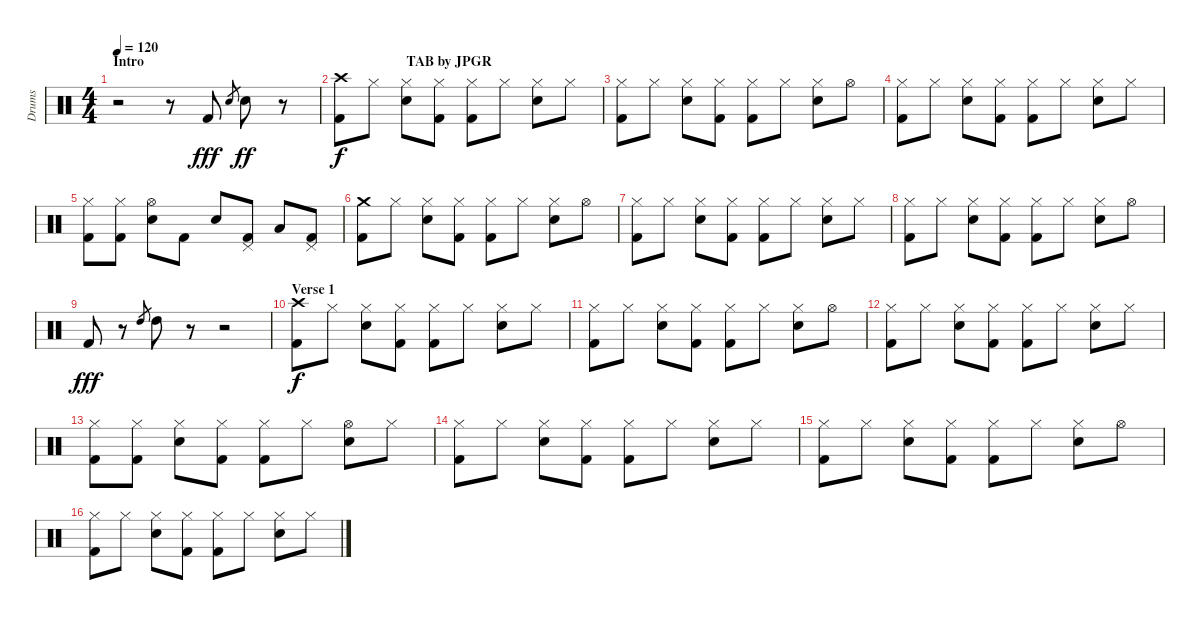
\track ("Drums" "Drums") {instrument percussion}
\staff {score}
\articulation defaults
\ts (4 4)
\section ("" "Intro                                                                           TAB by JPGR")
\tempo 120
\clef neutral
\ks c
r.2{dy fff} r.8 "Kick (hit) 2".8{volume 15} "Snare (hit) 2".8{gr} "Snare (hit) 2".8{dy ff} r.8 |
("Crash high (hit)" "Kick (hit) 2").8{dy f volume 11} "Hi-Hat (closed)".8 ("Hi-Hat (closed)" "Snare (hit) 2").8 ("Hi-Hat (closed)" "Kick (hit) 2").8 ("Hi-Hat (closed)" "Kick (hit) 2").8 "Hi-Hat (closed)".8 ("Hi-Hat (closed)" "Snare (hit) 2").8 "Hi-Hat (closed)".8 |
("Hi-Hat (closed)" "Kick (hit) 2").8 "Hi-Hat (closed)".8 ("Hi-Hat (closed)" "Snare (hit) 2").8 ("Hi-Hat (closed)" "Kick (hit) 2").8 ("Hi-Hat (closed)" "Kick (hit) 2").8 "Hi-Hat (closed)".8 ("Hi-Hat (closed)" "Snare (hit) 2").8 "Hi-Hat (open)".8 |
("Hi-Hat (closed)" "Kick (hit) 2").8 "Hi-Hat (closed)".8 ("Hi-Hat (closed)" "Snare (hit) 2").8 ("Hi-Hat (closed)" "Kick (hit) 2").8 ("Hi-Hat (closed)" "Kick (hit) 2").8 "Hi-Hat (closed)".8 ("Hi-Hat (closed)" "Snare (hit) 2").8 "Hi-Hat (closed)".8 |
("Hi-Hat (closed)" "Kick (hit) 2").8 ("Hi-Hat (closed)" "Kick (hit) 2").8 ("Hi-Hat (open)" "Snare (hit) 2").8 "Kick (hit) 2".8 "Snare (hit) 2".8 ("Pedal Hi-Hat (hit)" "Kick (hit) 2").8 "Low Tom (hit)".8 ("Pedal Hi-Hat (hit)" "Kick (hit) 2").8 |
("Crash medium (hit)" "Kick (hit) 2").8 "Hi-Hat (closed)".8 ("Hi-Hat (closed)" "Snare (hit) 2").8 ("Hi-Hat (closed)" "Kick (hit) 2").8 ("Hi-Hat (closed)" "Kick (hit) 2").8 "Hi-Hat (closed)".8 ("Hi-Hat (closed)" "Snare (hit) 2").8 "Hi-Hat (open)".8 |
("Hi-Hat (closed)" "Kick (hit) 2").8 "Hi-Hat (closed)".8 ("Hi-Hat (closed)" "Snare (hit) 2").8 ("Hi-Hat (closed)" "Kick (hit) 2").8 ("Hi-Hat (closed)" "Kick (hit) 2").8 "Hi-Hat (closed)".8 ("Hi-Hat (closed)" "Snare (hit) 2").8 "Hi-Hat (closed)".8 |
("Hi-Hat (closed)" "Kick (hit) 2").8 "Hi-Hat (closed)".8 ("Hi-Hat (closed)" "Snare (hit) 2").8 ("Hi-Hat (closed)" "Kick (hit) 2").8 ("Hi-Hat (closed)" "Kick (hit) 2").8 "Hi-Hat (closed)".8 ("Hi-Hat (closed)" "Snare (hit) 2").8 "Hi-Hat (open)".8 |
"Kick (hit) 2".8{dy fff} r.8 "High Tom (hit)".8{gr} "High Tom (hit)".8 r.8 r.2 |
\section ("" "Verse 1")
("Crash high (hit)" "Kick (hit) 2").8{dy f} "Hi-Hat (closed)".8 ("Hi-Hat (closed)" "Snare (hit) 2").8 ("Hi-Hat (closed)" "Kick (hit) 2").8 ("Hi-Hat (closed)" "Kick (hit) 2").8 "Hi-Hat (closed)".8 ("Hi-Hat (closed)" "Snare (hit) 2").8 "Hi-Hat (closed)".8 |
("Hi-Hat (closed)" "Kick (hit) 2").8 "Hi-Hat (closed)".8 ("Hi-Hat (closed)" "Snare (hit) 2").8 ("Hi-Hat (closed)" "Kick (hit) 2").8 ("Hi-Hat (closed)" "Kick (hit) 2").8 "Hi-Hat (closed)".8 ("Hi-Hat (closed)" "Snare (hit) 2").8 "Hi-Hat (open)".8 |
("Hi-Hat (closed)" "Kick (hit) 2").8 "Hi-Hat (closed)".8 ("Hi-Hat (closed)" "Snare (hit) 2").8 ("Hi-Hat (closed)" "Kick (hit) 2").8 ("Hi-Hat (closed)" "Kick (hit) 2").8 "Hi-Hat (closed)".8 ("Hi-Hat (closed)" "Snare (hit) 2").8 "Hi-Hat (closed)".8 |
("Hi-Hat (closed)" "Kick (hit) 2").8 ("Hi-Hat (closed)" "Kick (hit) 2").8 ("Hi-Hat (closed)" "Snare (hit) 2").8 ("Hi-Hat (closed)" "Kick (hit) 2").8 ("Hi-Hat (closed)" "Kick (hit) 2").8 "Hi-Hat (closed)".8 ("Hi-Hat (open)" "Snare (hit) 2").8 "Hi-Hat (closed)".8 |
("Hi-Hat (closed)" "Kick (hit) 2").8 "Hi-Hat (closed)".8 ("Hi-Hat (closed)" "Snare (hit) 2").8 ("Hi-Hat (closed)" "Kick (hit) 2").8 ("Hi-Hat (closed)" "Kick (hit) 2").8 "Hi-Hat (closed)".8 ("Hi-Hat (closed)" "Snare (hit) 2").8 "Hi-Hat (closed)".8 |
("Hi-Hat (closed)" "Kick (hit) 2").8 "Hi-Hat (closed)".8 ("Hi-Hat (closed)" "Snare (hit) 2").8 ("Hi-Hat (closed)" "Kick (hit) 2").8 ("Hi-Hat (closed)" "Kick (hit) 2").8 "Hi-Hat (closed)".8 ("Hi-Hat (closed)" "Snare (hit) 2").8 "Hi-Hat (open)".8 |
("Hi-Hat (closed)" "Kick (hit) 2").8 "Hi-Hat (closed)".8 ("Hi-Hat (closed)" "Snare (hit) 2").8 ("Hi-Hat (closed)" "Kick (hit) 2").8 ("Hi-Hat (closed)" "Kick (hit) 2").8 "Hi-Hat (closed)".8 ("Hi-Hat (closed)" "Snare (hit) 2").8 "Hi-Hat (closed)".8
